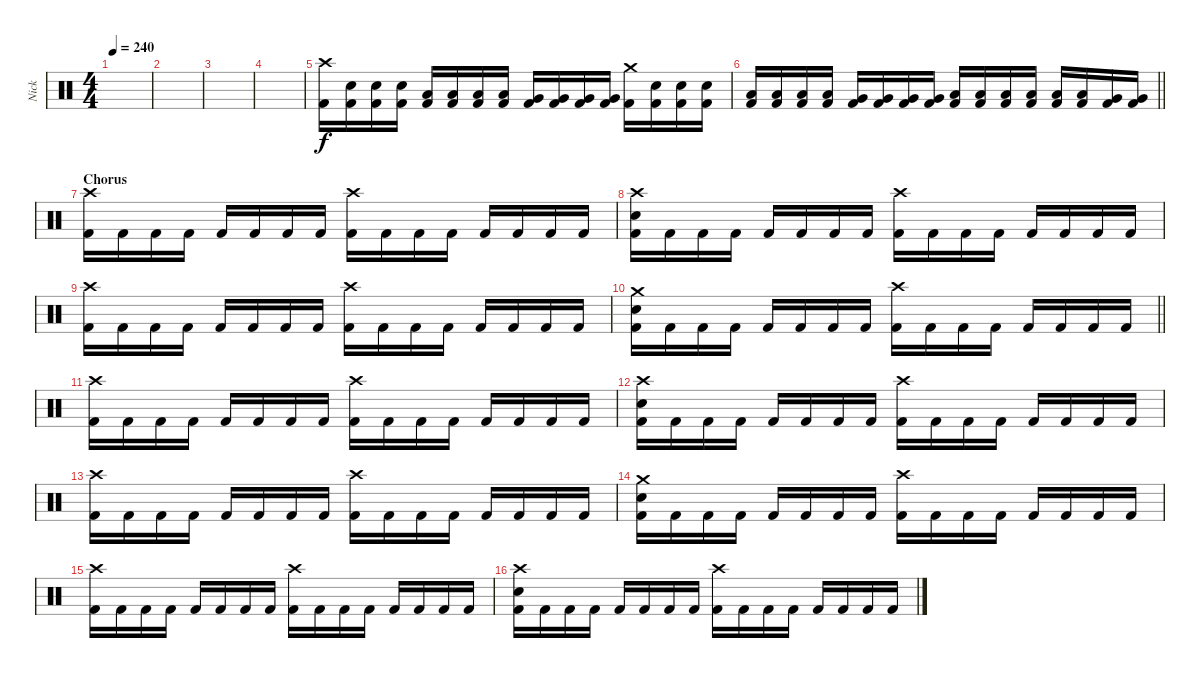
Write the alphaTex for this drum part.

\track ("Nick" "Nick") {instrument percussion}
\staff {score}
\articulation defaults
\ts (4 4)
\tempo 240
\clef neutral
\ks c
|
|
|
|
("Crash high (hit)" "Kick (hit) 2").16 ("Electric Snare (hit)" "Kick (hit) 2").16 ("Electric Snare (hit)" "Kick (hit) 2").16 ("Electric Snare (hit)" "Kick (hit) 2").16 ("Low Tom (hit)" "Kick (hit) 2").16 ("Low Tom (hit)" "Kick (hit) 2").16 ("Low Tom (hit)" "Kick (hit) 2").16 ("Low Tom (hit)" "Kick (hit) 2").16 ("Very Low Tom (hit)" "Kick (hit) 2").16 ("Very Low Tom (hit)" "Kick (hit) 2").16 ("Very Low Tom (hit)" "Kick (hit) 2").16 ("Very Low Tom (hit)" "Kick (hit) 2").16 ("Crash medium (hit)" "Kick (hit) 2").16 ("Electric Snare (hit)" "Kick (hit) 2").16 ("Electric Snare (hit)" "Kick (hit) 2").16 ("Electric Snare (hit)" "Kick (hit) 2").16 |
\barLineRight lightlight
("Low Tom (hit)" "Kick (hit) 2").16 ("Low Tom (hit)" "Kick (hit) 2").16 ("Low Tom (hit)" "Kick (hit) 2").16 ("Low Tom (hit)" "Kick (hit) 2").16 ("Very Low Tom (hit)" "Kick (hit) 2").16 ("Very Low Tom (hit)" "Kick (hit) 2").16 ("Very Low Tom (hit)" "Kick (hit) 2").16 ("Very Low Tom (hit)" "Kick (hit) 2").16 ("Low Floor Tom (hit)" "Kick (hit) 2").16 ("Low Floor Tom (hit)" "Kick (hit) 2").16 ("Low Floor Tom (hit)" "Kick (hit) 2").16 ("Low Floor Tom (hit)" "Kick (hit) 2").16 ("Low Tom (hit)" "Kick (hit) 2").16 ("Low Tom (hit)" "Kick (hit) 2").16 ("Very Low Tom (hit)" "Kick (hit) 2").16 ("Very Low Tom (hit)" "Kick (hit) 2").16 |
\section ("" "Chorus")
("Crash high (hit)" "Kick (hit) 2").16 "Kick (hit) 2".16 "Kick (hit) 2".16 "Kick (hit) 2".16 "Kick (hit) 2".16 "Kick (hit) 2".16 "Kick (hit) 2".16 "Kick (hit) 2".16 ("Crash high (hit)" "Kick (hit) 2").16 "Kick (hit) 2".16 "Kick (hit) 2".16 "Kick (hit) 2".16 "Kick (hit) 2".16 "Kick (hit) 2".16 "Kick (hit) 2".16 "Kick (hit) 2".16 |
("Crash high (hit)" "Electric Snare (hit)" "Kick (hit) 2").16 "Kick (hit) 2".16 "Kick (hit) 2".16 "Kick (hit) 2".16 "Kick (hit) 2".16 "Kick (hit) 2".16 "Kick (hit) 2".16 "Kick (hit) 2".16 ("Crash high (hit)" "Kick (hit) 2").16 "Kick (hit) 2".16 "Kick (hit) 2".16 "Kick (hit) 2".16 "Kick (hit) 2".16 "Kick (hit) 2".16 "Kick (hit) 2".16 "Kick (hit) 2".16 |
("Crash high (hit)" "Kick (hit) 2").16 "Kick (hit) 2".16 "Kick (hit) 2".16 "Kick (hit) 2".16 "Kick (hit) 2".16 "Kick (hit) 2".16 "Kick (hit) 2".16 "Kick (hit) 2".16 ("Crash high (hit)" "Kick (hit) 2").16 "Kick (hit) 2".16 "Kick (hit) 2".16 "Kick (hit) 2".16 "Kick (hit) 2".16 "Kick (hit) 2".16 "Kick (hit) 2".16 "Kick (hit) 2".16 |
\barLineRight lightlight
("Crash medium (hit)" "Electric Snare (hit)" "Kick (hit) 2").16 "Kick (hit) 2".16 "Kick (hit) 2".16 "Kick (hit) 2".16 "Kick (hit) 2".16 "Kick (hit) 2".16 "Kick (hit) 2".16 "Kick (hit) 2".16 ("Crash high (hit)" "Kick (hit) 2").16 "Kick (hit) 2".16 "Kick (hit) 2".16 "Kick (hit) 2".16 "Kick (hit) 2".16 "Kick (hit) 2".16 "Kick (hit) 2".16 "Kick (hit) 2".16 |
("Crash high (hit)" "Kick (hit) 2").16 "Kick (hit) 2".16 "Kick (hit) 2".16 "Kick (hit) 2".16 "Kick (hit) 2".16 "Kick (hit) 2".16 "Kick (hit) 2".16 "Kick (hit) 2".16 ("Crash high (hit)" "Kick (hit) 2").16 "Kick (hit) 2".16 "Kick (hit) 2".16 "Kick (hit) 2".16 "Kick (hit) 2".16 "Kick (hit) 2".16 "Kick (hit) 2".16 "Kick (hit) 2".16 |
("Crash high (hit)" "Electric Snare (hit)" "Kick (hit) 2").16 "Kick (hit) 2".16 "Kick (hit) 2".16 "Kick (hit) 2".16 "Kick (hit) 2".16 "Kick (hit) 2".16 "Kick (hit) 2".16 "Kick (hit) 2".16 ("Crash high (hit)" "Kick (hit) 2").16 "Kick (hit) 2".16 "Kick (hit) 2".16 "Kick (hit) 2".16 "Kick (hit) 2".16 "Kick (hit) 2".16 "Kick (hit) 2".16 "Kick (hit) 2".16 |
("Crash high (hit)" "Kick (hit) 2").16 "Kick (hit) 2".16 "Kick (hit) 2".16 "Kick (hit) 2".16 "Kick (hit) 2".16 "Kick (hit) 2".16 "Kick (hit) 2".16 "Kick (hit) 2".16 ("Crash high (hit)" "Kick (hit) 2").16 "Kick (hit) 2".16 "Kick (hit) 2".16 "Kick (hit) 2".16 "Kick (hit) 2".16 "Kick (hit) 2".16 "Kick (hit) 2".16 "Kick (hit) 2".16 |
("Crash medium (hit)" "Electric Snare (hit)" "Kick (hit) 2").16 "Kick (hit) 2".16 "Kick (hit) 2".16 "Kick (hit) 2".16 "Kick (hit) 2".16 "Kick (hit) 2".16 "Kick (hit) 2".16 "Kick (hit) 2".16 ("Crash high (hit)" "Kick (hit) 2").16 "Kick (hit) 2".16 "Kick (hit) 2".16 "Kick (hit) 2".16 "Kick (hit) 2".16 "Kick (hit) 2".16 "Kick (hit) 2".16 "Kick (hit) 2".16 |
("Crash high (hit)" "Kick (hit) 2").16 "Kick (hit) 2".16 "Kick (hit) 2".16 "Kick (hit) 2".16 "Kick (hit) 2".16 "Kick (hit) 2".16 "Kick (hit) 2".16 "Kick (hit) 2".16 ("Crash high (hit)" "Kick (hit) 2").16 "Kick (hit) 2".16 "Kick (hit) 2".16 "Kick (hit) 2".16 "Kick (hit) 2".16 "Kick (hit) 2".16 "Kick (hit) 2".16 "Kick (hit) 2".16 |
("Crash high (hit)" "Electric Snare (hit)" "Kick (hit) 2").16 "Kick (hit) 2".16 "Kick (hit) 2".16 "Kick (hit) 2".16 "Kick (hit) 2".16 "Kick (hit) 2".16 "Kick (hit) 2".16 "Kick (hit) 2".16 ("Crash high (hit)" "Kick (hit) 2").16 "Kick (hit) 2".16 "Kick (hit) 2".16 "Kick (hit) 2".16 "Kick (hit) 2".16 "Kick (hit) 2".16 "Kick (hit) 2".16 "Kick (hit) 2".16
